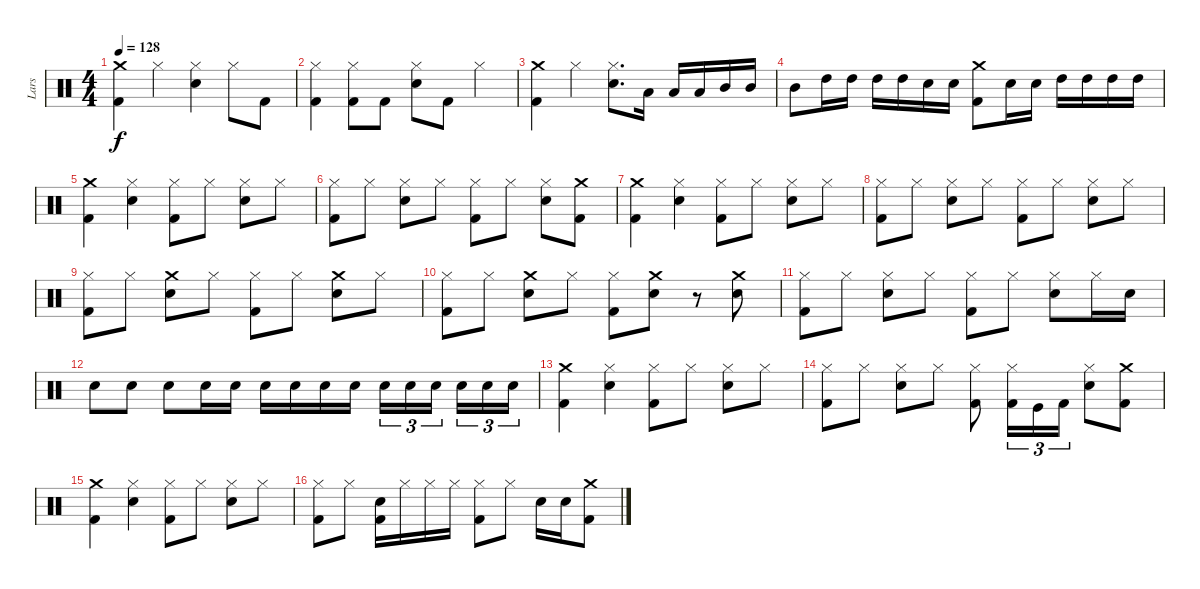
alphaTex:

\track ("Lars" "Lars") {instrument percussion}
\staff {score}
\articulation defaults
\ts (4 4)
\tempo 128
\clef neutral
\ks c
("Kick (hit) 2" "Crash medium (hit)").4{dy f} "Hi-Hat (closed)".4 ("Snare (hit) 2" "Hi-Hat (closed)").4 "Hi-Hat (closed)".8 "Kick (hit) 2".8 |
("Hi-Hat (closed)" "Kick (hit) 2").4 ("Hi-Hat (closed)" "Kick (hit) 2").8 "Kick (hit) 2".8 ("Snare (hit) 2" "Hi-Hat (closed)").8 "Kick (hit) 2".8 "Hi-Hat (closed)".4 |
("Crash medium (hit)" "Kick (hit) 2").4 "Hi-Hat (closed)".4 ("Hi-Hat (closed)" "Snare (hit) 2").8{d} "Low Tom (hit)".16 "Low Tom (hit)".16 "Low Tom (hit)".16 "Mid Tom (hit)".16 "Mid Tom (hit)".16 |
"Mid Tom (hit)".8 "High Tom (hit)".16 "High Tom (hit)".16 "High Tom (hit)".16 "High Tom (hit)".16 "Snare (hit) 2".16 "Snare (hit) 2".16 ("Crash medium (hit)" "Kick (hit) 2").8 "Snare (hit) 2".16 "Snare (hit) 2".16 "High Tom (hit)".16 "High Tom (hit)".16 "High Tom (hit)".16 "High Tom (hit)".16 |
("Kick (hit) 2" "Crash medium (hit)").4 ("Hi-Hat (closed)" "Snare (hit) 2").4 ("Hi-Hat (closed)" "Kick (hit) 2").8 "Hi-Hat (closed)".8 ("Snare (hit) 2" "Hi-Hat (closed)").8 "Hi-Hat (closed)".8 |
("Kick (hit) 2" "Hi-Hat (closed)").8 "Hi-Hat (closed)".8 ("Snare (hit) 2" "Hi-Hat (closed)").8 "Hi-Hat (closed)".8 ("Kick (hit) 2" "Hi-Hat (closed)").8 "Hi-Hat (closed)".8 ("Snare (hit) 2" "Hi-Hat (closed)").8 ("Kick (hit) 2" "Crash medium (hit)").8 |
("Crash medium (hit)" "Kick (hit) 2").4 ("Hi-Hat (closed)" "Snare (hit) 2").4 ("Hi-Hat (closed)" "Kick (hit) 2").8 "Hi-Hat (closed)".8 ("Snare (hit) 2" "Hi-Hat (closed)").8 "Hi-Hat (closed)".8 |
("Hi-Hat (closed)" "Kick (hit) 2").8 "Hi-Hat (closed)".8 ("Snare (hit) 2" "Hi-Hat (closed)").8 "Hi-Hat (closed)".8 ("Hi-Hat (closed)" "Kick (hit) 2").8 "Hi-Hat (closed)".8 ("Snare (hit) 2" "Hi-Hat (closed)").8 "Hi-Hat (closed)".8 |
("Hi-Hat (closed)" "Kick (hit) 2").8 "Hi-Hat (closed)".8 ("Crash medium (hit)" "Snare (hit) 2").8 "Hi-Hat (closed)".8 ("Hi-Hat (closed)" "Kick (hit) 2").8 "Hi-Hat (closed)".8 ("Snare (hit) 2" "Crash medium (hit)").8 "Hi-Hat (closed)".8 |
("Hi-Hat (closed)" "Kick (hit) 2").8 "Hi-Hat (closed)".8 ("Crash medium (hit)" "Snare (hit) 2").8 "Hi-Hat (closed)".8 ("Hi-Hat (closed)" "Kick (hit) 2").8 ("Crash medium (hit)" "Snare (hit) 2").8 r.8 ("Crash medium (hit)" "Snare (hit) 2").8 |
("Kick (hit) 2" "Hi-Hat (closed)").8 "Hi-Hat (closed)".8 ("Snare (hit) 2" "Hi-Hat (closed)").8 "Hi-Hat (closed)".8 ("Kick (hit) 2" "Hi-Hat (closed)").8 "Hi-Hat (closed)".8 ("Snare (hit) 2" "Hi-Hat (closed)").8 "Hi-Hat (closed)".16 "Snare (hit) 2".16 |
"Snare (hit) 2".8 "Snare (hit) 2".8 "Snare (hit) 2".8 "Snare (hit) 2".16 "Snare (hit) 2".16 "Snare (hit) 2".16 "Snare (hit) 2".16 "Snare (hit) 2".16 "Snare (hit) 2".16 "Snare (hit) 2".16{tu (3 2)} "Snare (hit) 2".16{tu (3 2)} "Snare (hit) 2".16{tu (3 2)} "Snare (hit) 2".16{tu (3 2)} "Snare (hit) 2".16{tu (3 2)} "Snare (hit) 2".16{tu (3 2)} |
("Kick (hit) 2" "Crash medium (hit)").4 ("Hi-Hat (closed)" "Snare (hit) 2").4 ("Hi-Hat (closed)" "Kick (hit) 2").8 "Hi-Hat (closed)".8 ("Snare (hit) 2" "Hi-Hat (closed)").8 "Hi-Hat (closed)".8 |
("Kick (hit) 2" "Hi-Hat (closed)").8 "Hi-Hat (closed)".8 ("Snare (hit) 2" "Hi-Hat (closed)").8 "Hi-Hat (closed)".8 ("Kick (hit) 2" "Hi-Hat (closed)").8 ("Kick (hit) 2" "Hi-Hat (closed)").16{tu (3 2)} "Kick (hit)".16{tu (3 2)} "Kick (hit) 2".16{tu (3 2)} ("Snare (hit) 2" "Hi-Hat (closed)").8 ("Crash medium (hit)" "Kick (hit) 2").8 |
("Kick (hit) 2" "Crash medium (hit)").4 ("Hi-Hat (closed)" "Snare (hit) 2").4 ("Hi-Hat (closed)" "Kick (hit) 2").8 "Hi-Hat (closed)".8 ("Snare (hit) 2" "Hi-Hat (closed)").8 "Hi-Hat (closed)".8 |
("Kick (hit) 2" "Hi-Hat (closed)").8 "Hi-Hat (closed)".8 ("Kick (hit) 2" "Snare (hit) 2").16 "Hi-Hat (closed)".16 "Hi-Hat (closed)".16 "Hi-Hat (closed)".16 ("Hi-Hat (closed)" "Kick (hit) 2").8 "Hi-Hat (closed)".8 "Snare (hit) 2".16 "Snare (hit) 2".16 ("Crash medium (hit)" "Kick (hit) 2").8
